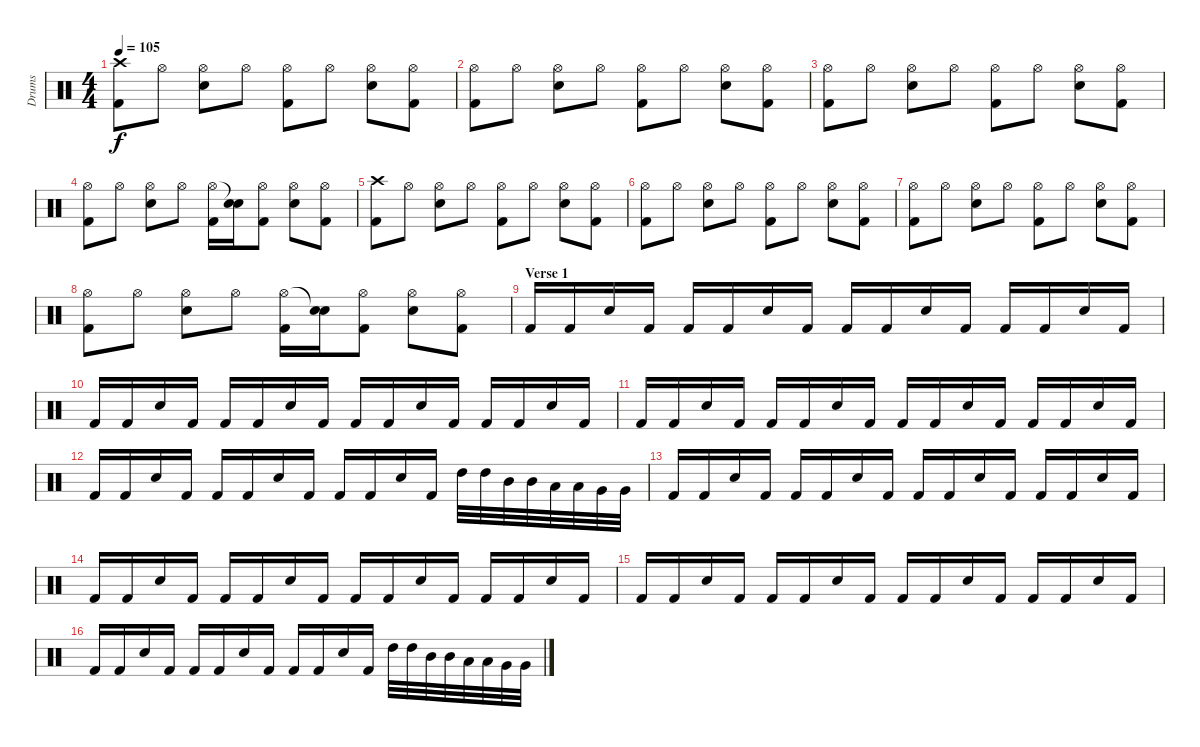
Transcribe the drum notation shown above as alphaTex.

\track ("Drums" "Drums") {instrument percussion}
\staff {score}
\articulation defaults
\ts (4 4)
\tempo 105
\clef neutral
\ks c
("Crash high (hit)" "Kick (hit) 2").8{dy f} "Hi-Hat (open)".8 ("Hi-Hat (open)" "Electric Snare (hit)").8 "Hi-Hat (open)".8 ("Hi-Hat (open)" "Kick (hit) 2").8 "Hi-Hat (open)".8 ("Hi-Hat (open)" "Electric Snare (hit)").8 ("Hi-Hat (open)" "Kick (hit) 2").8 |
("Hi-Hat (open)" "Kick (hit) 2").8 "Hi-Hat (open)".8 ("Hi-Hat (open)" "Electric Snare (hit)").8 "Hi-Hat (open)".8 ("Hi-Hat (open)" "Kick (hit) 2").8 "Hi-Hat (open)".8 ("Hi-Hat (open)" "Electric Snare (hit)").8 ("Hi-Hat (open)" "Kick (hit) 2").8 |
("Hi-Hat (open)" "Kick (hit) 2").8 "Hi-Hat (open)".8 ("Hi-Hat (open)" "Electric Snare (hit)").8 "Hi-Hat (open)".8 ("Hi-Hat (open)" "Kick (hit) 2").8 "Hi-Hat (open)".8 ("Hi-Hat (open)" "Electric Snare (hit)").8 ("Hi-Hat (open)" "Kick (hit) 2").8 |
("Hi-Hat (open)" "Kick (hit) 2").8 "Hi-Hat (open)".8 ("Hi-Hat (open)" "Electric Snare (hit)").8 "Hi-Hat (open)".8 ("Hi-Hat (open)" "Kick (hit) 2").16 ("Snare (hit)"{t} "Electric Snare (hit)").16 ("Hi-Hat (open)" "Kick (hit) 2").8 ("Hi-Hat (open)" "Electric Snare (hit)").8 ("Hi-Hat (open)" "Kick (hit) 2").8 |
("Crash high (hit)" "Kick (hit) 2").8 "Hi-Hat (open)".8 ("Hi-Hat (open)" "Electric Snare (hit)").8 "Hi-Hat (open)".8 ("Hi-Hat (open)" "Kick (hit) 2").8 "Hi-Hat (open)".8 ("Hi-Hat (open)" "Electric Snare (hit)").8 ("Hi-Hat (open)" "Kick (hit) 2").8 |
("Hi-Hat (open)" "Kick (hit) 2").8 "Hi-Hat (open)".8 ("Hi-Hat (open)" "Electric Snare (hit)").8 "Hi-Hat (open)".8 ("Hi-Hat (open)" "Kick (hit) 2").8 "Hi-Hat (open)".8 ("Hi-Hat (open)" "Electric Snare (hit)").8 ("Hi-Hat (open)" "Kick (hit) 2").8 |
("Hi-Hat (open)" "Kick (hit) 2").8 "Hi-Hat (open)".8 ("Hi-Hat (open)" "Electric Snare (hit)").8 "Hi-Hat (open)".8 ("Hi-Hat (open)" "Kick (hit) 2").8 "Hi-Hat (open)".8 ("Hi-Hat (open)" "Electric Snare (hit)").8 ("Hi-Hat (open)" "Kick (hit) 2").8 |
("Hi-Hat (open)" "Kick (hit) 2").8 "Hi-Hat (open)".8 ("Hi-Hat (open)" "Electric Snare (hit)").8 "Hi-Hat (open)".8 ("Hi-Hat (open)" "Kick (hit) 2").16 ("Snare (hit)"{t} "Electric Snare (hit)").16 ("Hi-Hat (open)" "Kick (hit) 2").8 ("Hi-Hat (open)" "Electric Snare (hit)").8 ("Hi-Hat (open)" "Kick (hit) 2").8 |
\section ("" "Verse 1")
"Kick (hit) 2".16 "Kick (hit) 2".16 "Electric Snare (hit)".16 "Kick (hit) 2".16 "Kick (hit) 2".16 "Kick (hit) 2".16 "Electric Snare (hit)".16 "Kick (hit) 2".16 "Kick (hit) 2".16 "Kick (hit) 2".16 "Electric Snare (hit)".16 "Kick (hit) 2".16 "Kick (hit) 2".16 "Kick (hit) 2".16 "Electric Snare (hit)".16 "Kick (hit) 2".16 |
"Kick (hit) 2".16 "Kick (hit) 2".16 "Electric Snare (hit)".16 "Kick (hit) 2".16 "Kick (hit) 2".16 "Kick (hit) 2".16 "Electric Snare (hit)".16 "Kick (hit) 2".16 "Kick (hit) 2".16 "Kick (hit) 2".16 "Electric Snare (hit)".16 "Kick (hit) 2".16 "Kick (hit) 2".16 "Kick (hit) 2".16 "Electric Snare (hit)".16 "Kick (hit) 2".16 |
"Kick (hit) 2".16 "Kick (hit) 2".16 "Electric Snare (hit)".16 "Kick (hit) 2".16 "Kick (hit) 2".16 "Kick (hit) 2".16 "Electric Snare (hit)".16 "Kick (hit) 2".16 "Kick (hit) 2".16 "Kick (hit) 2".16 "Electric Snare (hit)".16 "Kick (hit) 2".16 "Kick (hit) 2".16 "Kick (hit) 2".16 "Electric Snare (hit)".16 "Kick (hit) 2".16 |
"Kick (hit) 2".16 "Kick (hit) 2".16 "Electric Snare (hit)".16 "Kick (hit) 2".16 "Kick (hit) 2".16 "Kick (hit) 2".16 "Electric Snare (hit)".16 "Kick (hit) 2".16 "Kick (hit) 2".16 "Kick (hit) 2".16 "Electric Snare (hit)".16 "Kick (hit) 2".16 "High Tom (hit)".32 "High Tom (hit)".32 "Mid Tom (hit)".32 "Mid Tom (hit)".32 "Low Tom (hit)".32 "Low Tom (hit)".32 "Very Low Tom (hit)".32 "Very Low Tom (hit)".32 |
"Kick (hit) 2".16 "Kick (hit) 2".16 "Electric Snare (hit)".16 "Kick (hit) 2".16 "Kick (hit) 2".16 "Kick (hit) 2".16 "Electric Snare (hit)".16 "Kick (hit) 2".16 "Kick (hit) 2".16 "Kick (hit) 2".16 "Electric Snare (hit)".16 "Kick (hit) 2".16 "Kick (hit) 2".16 "Kick (hit) 2".16 "Electric Snare (hit)".16 "Kick (hit) 2".16 |
"Kick (hit) 2".16 "Kick (hit) 2".16 "Electric Snare (hit)".16 "Kick (hit) 2".16 "Kick (hit) 2".16 "Kick (hit) 2".16 "Electric Snare (hit)".16 "Kick (hit) 2".16 "Kick (hit) 2".16 "Kick (hit) 2".16 "Electric Snare (hit)".16 "Kick (hit) 2".16 "Kick (hit) 2".16 "Kick (hit) 2".16 "Electric Snare (hit)".16 "Kick (hit) 2".16 |
"Kick (hit) 2".16 "Kick (hit) 2".16 "Electric Snare (hit)".16 "Kick (hit) 2".16 "Kick (hit) 2".16 "Kick (hit) 2".16 "Electric Snare (hit)".16 "Kick (hit) 2".16 "Kick (hit) 2".16 "Kick (hit) 2".16 "Electric Snare (hit)".16 "Kick (hit) 2".16 "Kick (hit) 2".16 "Kick (hit) 2".16 "Electric Snare (hit)".16 "Kick (hit) 2".16 |
"Kick (hit) 2".16 "Kick (hit) 2".16 "Electric Snare (hit)".16 "Kick (hit) 2".16 "Kick (hit) 2".16 "Kick (hit) 2".16 "Electric Snare (hit)".16 "Kick (hit) 2".16 "Kick (hit) 2".16 "Kick (hit) 2".16 "Electric Snare (hit)".16 "Kick (hit) 2".16 "High Tom (hit)".32 "High Tom (hit)".32 "Mid Tom (hit)".32 "Mid Tom (hit)".32 "Low Tom (hit)".32 "Low Tom (hit)".32 "Very Low Tom (hit)".32 "Very Low Tom (hit)".32
